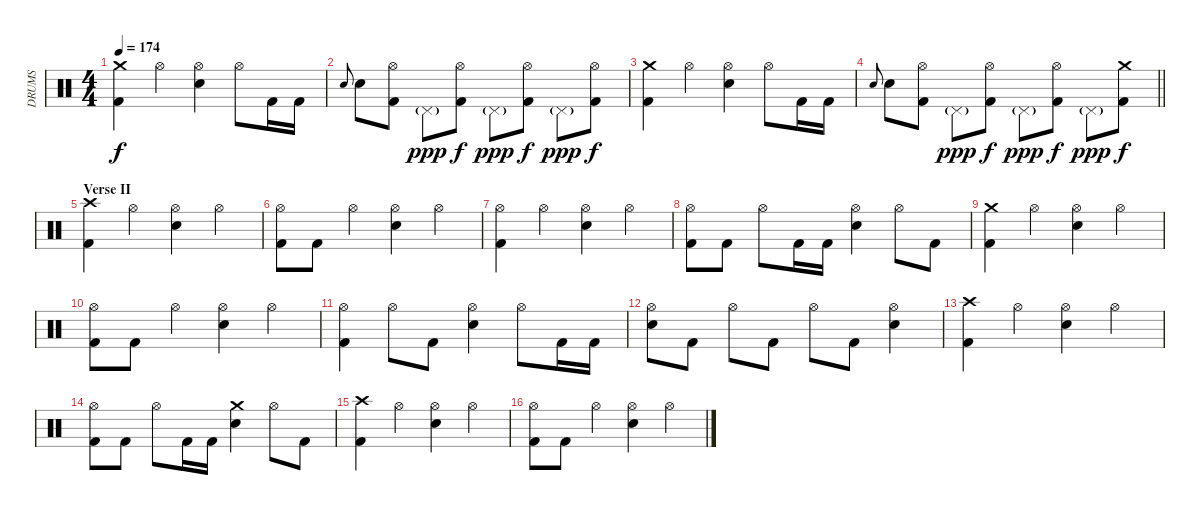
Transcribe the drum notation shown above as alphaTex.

\track ("DRUMS" "DRUMS") {instrument percussion}
\staff {score}
\articulation defaults
\ts (4 4)
\tempo 174
\clef neutral
\ks c
("Crash medium (hit)" "Kick (hit) 2").4{dy f} "Hi-Hat (open)".4 ("Hi-Hat (open)" "Snare (hit) 2").4 "Hi-Hat (open)".8 "Kick (hit) 2".16 "Kick (hit) 2".16 |
"Snare (hit) 2".8{gr onbeat} "Snare (hit) 2".8 ("Hi-Hat (open)" "Kick (hit) 2").8 "Pedal Hi-Hat (hit)"{g}.8{dy ppp} ("Hi-Hat (open)" "Kick (hit) 2").8{dy f} "Pedal Hi-Hat (hit)"{g}.8{dy ppp} ("Hi-Hat (open)" "Kick (hit) 2").8{dy f} "Pedal Hi-Hat (hit)"{g}.8{dy ppp} ("Hi-Hat (open)" "Kick (hit) 2").8{dy f} |
("Crash medium (hit)" "Kick (hit) 2").4 "Hi-Hat (open)".4 ("Hi-Hat (open)" "Snare (hit) 2").4 "Hi-Hat (open)".8 "Kick (hit) 2".16 "Kick (hit) 2".16 |
\barLineRight lightlight "Snare (hit) 2".8{gr onbeat} "Snare (hit) 2".8
("Hi-Hat (open)" "Kick (hit) 2").8 "Pedal Hi-Hat (hit)"{g}.8{dy ppp} ("Hi-Hat (open)" "Kick (hit) 2").8{dy f} "Pedal Hi-Hat (hit)"{g}.8{dy ppp} ("Hi-Hat (open)" "Kick (hit) 2").8{dy f} "Pedal Hi-Hat (hit)"{g}.8{dy ppp} ("Crash medium (hit)" "Kick (hit) 2").8{dy f} |
\section ("" "Verse II")
("Crash high (hit)" "Kick (hit) 2").4 "Hi-Hat (open)".4 ("Hi-Hat (open)" "Snare (hit) 2").4 "Hi-Hat (open)".4 |
("Hi-Hat (open)" "Kick (hit) 2").8 "Kick (hit) 2".8 "Hi-Hat (open)".4 ("Hi-Hat (open)" "Snare (hit) 2").4 "Hi-Hat (open)".4 |
("Hi-Hat (open)" "Kick (hit) 2").4 "Hi-Hat (open)".4 ("Hi-Hat (open)" "Snare (hit) 2").4 "Hi-Hat (open)".4 |
("Hi-Hat (open)" "Kick (hit) 2").8 "Kick (hit) 2".8 "Hi-Hat (open)".8 "Kick (hit) 2".16 "Kick (hit) 2".16 ("Hi-Hat (open)" "Snare (hit) 2").4 "Hi-Hat (open)".8 "Kick (hit) 2".8 |
("Crash medium (hit)" "Kick (hit) 2").4 "Hi-Hat (open)".4 ("Hi-Hat (open)" "Snare (hit) 2").4 "Hi-Hat (open)".4 |
("Hi-Hat (open)" "Kick (hit) 2").8 "Kick (hit) 2".8 "Hi-Hat (open)".4 ("Hi-Hat (open)" "Snare (hit) 2").4 "Hi-Hat (open)".4 |
("Hi-Hat (open)" "Kick (hit) 2").4 "Hi-Hat (open)".8 "Kick (hit) 2".8 ("Hi-Hat (open)" "Snare (hit) 2").4 "Hi-Hat (open)".8 "Kick (hit) 2".16 "Kick (hit) 2".16 |
("Hi-Hat (open)" "Snare (hit) 2").8 "Kick (hit) 2".8 "Hi-Hat (open)".8 "Kick (hit) 2".8 "Hi-Hat (open)".8 "Kick (hit) 2".8 ("Hi-Hat (open)" "Snare (hit) 2").4 |
("Crash high (hit)" "Kick (hit) 2").4 "Hi-Hat (open)".4 ("Hi-Hat (open)" "Snare (hit) 2").4 "Hi-Hat (open)".4 |
("Hi-Hat (open)" "Kick (hit) 2").8 "Kick (hit) 2".8 "Hi-Hat (open)".8 "Kick (hit) 2".16 "Kick (hit) 2".16 ("Crash medium (hit)" "Snare (hit) 2").4 "Hi-Hat (open)".8 "Kick (hit) 2".8 |
("Crash high (hit)" "Kick (hit) 2").4 "Hi-Hat (open)".4 ("Hi-Hat (open)" "Snare (hit) 2").4 "Hi-Hat (open)".4 |
("Hi-Hat (open)" "Kick (hit) 2").8 "Kick (hit) 2".8 "Hi-Hat (open)".4 ("Hi-Hat (open)" "Snare (hit) 2").4 "Hi-Hat (open)".4
